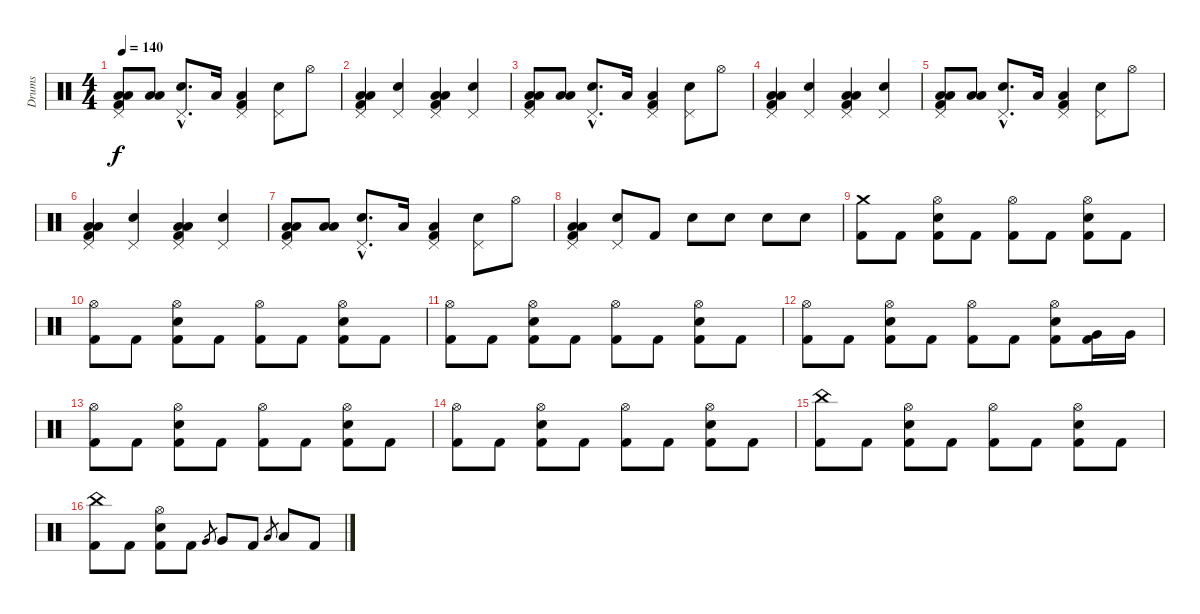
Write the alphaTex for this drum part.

\track ("Drums" "Drums") {instrument percussion}
\staff {score}
\articulation defaults
\ts (4 4)
\tempo 140
\clef neutral
\ks c
("Kick (hit) 2" "Low Tom (hit)" "Low Floor Tom (hit)" "Pedal Hi-Hat (hit)").8{dy f} ("Low Tom (hit)" "Low Floor Tom (hit)").8 ("Snare (hit) 2"{hac} "Pedal Hi-Hat (hit)"{hac}).8{d} "Low Floor Tom (hit)".16 ("Kick (hit) 2" "Low Floor Tom (hit)" "Pedal Hi-Hat (hit)").4 ("Snare (hit) 2" "Pedal Hi-Hat (hit)").8 "Hi-Hat (open)".8 |
("Kick (hit) 2" "Low Floor Tom (hit)" "Low Tom (hit)" "Pedal Hi-Hat (hit)").4 ("Snare (hit) 2" "Pedal Hi-Hat (hit)").4 ("Kick (hit) 2" "Low Floor Tom (hit)" "Low Tom (hit)" "Pedal Hi-Hat (hit)").4 ("Snare (hit) 2" "Pedal Hi-Hat (hit)").4 |
("Kick (hit) 2" "Low Tom (hit)" "Low Floor Tom (hit)" "Pedal Hi-Hat (hit)").8 ("Low Tom (hit)" "Low Floor Tom (hit)").8 ("Snare (hit) 2"{hac} "Pedal Hi-Hat (hit)"{hac}).8{d} "Low Floor Tom (hit)".16 ("Kick (hit) 2" "Low Floor Tom (hit)" "Pedal Hi-Hat (hit)").4 ("Snare (hit) 2" "Pedal Hi-Hat (hit)").8 "Hi-Hat (open)".8 |
("Kick (hit) 2" "Low Floor Tom (hit)" "Low Tom (hit)" "Pedal Hi-Hat (hit)").4 ("Snare (hit) 2" "Pedal Hi-Hat (hit)").4 ("Kick (hit) 2" "Low Floor Tom (hit)" "Low Tom (hit)" "Pedal Hi-Hat (hit)").4 ("Snare (hit) 2" "Pedal Hi-Hat (hit)").4 |
("Kick (hit) 2" "Low Tom (hit)" "Low Floor Tom (hit)" "Pedal Hi-Hat (hit)").8 ("Low Tom (hit)" "Low Floor Tom (hit)").8 ("Snare (hit) 2"{hac} "Pedal Hi-Hat (hit)"{hac}).8{d} "Low Floor Tom (hit)".16 ("Kick (hit) 2" "Low Floor Tom (hit)" "Pedal Hi-Hat (hit)").4 ("Snare (hit) 2" "Pedal Hi-Hat (hit)").8 "Hi-Hat (open)".8 |
("Kick (hit) 2" "Low Floor Tom (hit)" "Low Tom (hit)" "Pedal Hi-Hat (hit)").4 ("Snare (hit) 2" "Pedal Hi-Hat (hit)").4 ("Kick (hit) 2" "Low Floor Tom (hit)" "Low Tom (hit)" "Pedal Hi-Hat (hit)").4 ("Snare (hit) 2" "Pedal Hi-Hat (hit)").4 |
("Kick (hit) 2" "Low Tom (hit)" "Low Floor Tom (hit)" "Pedal Hi-Hat (hit)").8 ("Low Tom (hit)" "Low Floor Tom (hit)").8 ("Snare (hit) 2"{hac} "Pedal Hi-Hat (hit)"{hac}).8{d} "Low Floor Tom (hit)".16 ("Kick (hit) 2" "Low Floor Tom (hit)" "Pedal Hi-Hat (hit)").4 ("Snare (hit) 2" "Pedal Hi-Hat (hit)").8 "Hi-Hat (open)".8 |
("Kick (hit) 2" "Low Floor Tom (hit)" "Low Tom (hit)" "Pedal Hi-Hat (hit)").4 ("Snare (hit) 2" "Pedal Hi-Hat (hit)").8 "Kick (hit) 2".8 "Snare (hit) 2".8 "Snare (hit) 2".8 "Snare (hit) 2".8 "Snare (hit) 2".8 |
("Crash medium (hit)" "Kick (hit) 2").8 "Kick (hit) 2".8 ("Hi-Hat (open)" "Snare (hit) 2" "Kick (hit) 2").8 "Kick (hit) 2".8 ("Hi-Hat (open)" "Kick (hit) 2").8 "Kick (hit) 2".8 ("Hi-Hat (open)" "Snare (hit) 2" "Kick (hit) 2").8 "Kick (hit) 2".8 |
("Hi-Hat (open)" "Kick (hit) 2").8 "Kick (hit) 2".8 ("Hi-Hat (open)" "Snare (hit) 2" "Kick (hit) 2").8 "Kick (hit) 2".8 ("Hi-Hat (open)" "Kick (hit) 2").8 "Kick (hit) 2".8 ("Hi-Hat (open)" "Snare (hit) 2" "Kick (hit) 2").8 "Kick (hit) 2".8 |
("Hi-Hat (open)" "Kick (hit) 2").8 "Kick (hit) 2".8 ("Hi-Hat (open)" "Snare (hit) 2" "Kick (hit) 2").8 "Kick (hit) 2".8 ("Hi-Hat (open)" "Kick (hit) 2").8 "Kick (hit) 2".8 ("Hi-Hat (open)" "Snare (hit) 2" "Kick (hit) 2").8 "Kick (hit) 2".8 |
("Hi-Hat (open)" "Kick (hit) 2").8 "Kick (hit) 2".8 ("Hi-Hat (open)" "Snare (hit) 2" "Kick (hit) 2").8 "Kick (hit) 2".8 ("Hi-Hat (open)" "Kick (hit) 2").8 "Kick (hit) 2".8 ("Hi-Hat (open)" "Snare (hit) 2" "Kick (hit) 2").8 ("Very Low Tom (hit)" "Kick (hit) 2").16 "Very Low Tom (hit)".16 |
("Hi-Hat (open)" "Kick (hit) 2").8 "Kick (hit) 2".8 ("Hi-Hat (open)" "Snare (hit) 2" "Kick (hit) 2").8 "Kick (hit) 2".8 ("Hi-Hat (open)" "Kick (hit) 2").8 "Kick (hit) 2".8 ("Hi-Hat (open)" "Snare (hit) 2" "Kick (hit) 2").8 "Kick (hit) 2".8 |
("Hi-Hat (open)" "Kick (hit) 2").8 "Kick (hit) 2".8 ("Hi-Hat (open)" "Snare (hit) 2" "Kick (hit) 2").8 "Kick (hit) 2".8 ("Hi-Hat (open)" "Kick (hit) 2").8 "Kick (hit) 2".8 ("Hi-Hat (open)" "Snare (hit) 2" "Kick (hit) 2").8 "Kick (hit) 2".8 |
("China (hit)" "Kick (hit) 2").8 "Kick (hit) 2".8 ("Hi-Hat (open)" "Snare (hit) 2" "Kick (hit) 2").8 "Kick (hit) 2".8 ("Hi-Hat (open)" "Kick (hit) 2").8 "Kick (hit) 2".8 ("Hi-Hat (open)" "Snare (hit) 2" "Kick (hit) 2").8 "Kick (hit) 2".8 |
("China (hit)" "Kick (hit) 2").8 "Kick (hit) 2".8 ("Hi-Hat (open)" "Snare (hit) 2" "Kick (hit) 2").8 "Kick (hit) 2".8 "Very Low Tom (hit)".8{gr} "Very Low Tom (hit)".8 "Kick (hit) 2".8 "Low Floor Tom (hit)".8{gr} "Low Floor Tom (hit)".8 "Kick (hit) 2".8
